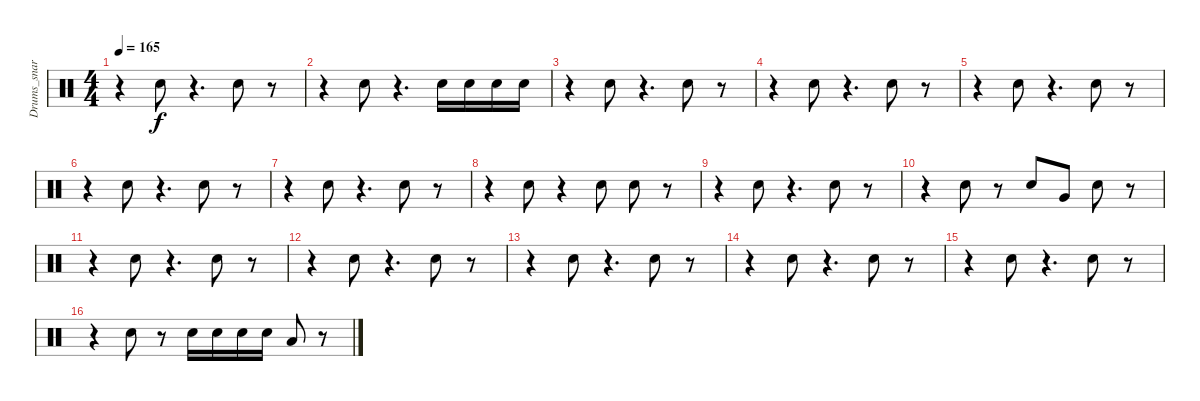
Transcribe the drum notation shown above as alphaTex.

\track ("Drums_snare&tom" "Drums_snar") {instrument percussion}
\staff {score}
\articulation defaults
\ts (4 4)
\tempo 165
\clef neutral
\ks c
r.4{dy f} "Snare (hit) 2".8 r.4{d} "Snare (hit) 2".8 r.8 |
r.4 "Snare (hit) 2".8 r.4{d} "Snare (hit) 2".16 "Snare (hit) 2".16 "Snare (hit) 2".16 "Snare (hit) 2".16 |
r.4 "Snare (hit) 2".8 r.4{d} "Snare (hit) 2".8 r.8 |
r.4 "Snare (hit) 2".8 r.4{d} "Snare (hit) 2".8 r.8 |
r.4 "Snare (hit) 2".8 r.4{d} "Snare (hit) 2".8 r.8 |
r.4 "Snare (hit) 2".8 r.4{d} "Snare (hit) 2".8 r.8 |
r.4 "Snare (hit) 2".8 r.4{d} "Snare (hit) 2".8 r.8 |
r.4 "Snare (hit) 2".8 r.4 "Snare (hit) 2".8 "Snare (hit) 2".8 r.8 |
r.4 "Snare (hit) 2".8 r.4{d} "Snare (hit) 2".8 r.8 |
r.4 "Snare (hit) 2".8 r.8 "Snare (hit) 2".8 "Very Low Tom (hit)".8 "Snare (hit) 2".8 r.8 |
r.4 "Snare (hit) 2".8 r.4{d} "Snare (hit) 2".8 r.8 |
r.4 "Snare (hit) 2".8 r.4{d} "Snare (hit) 2".8 r.8 |
r.4 "Snare (hit) 2".8 r.4{d} "Snare (hit) 2".8 r.8 |
r.4 "Snare (hit) 2".8 r.4{d} "Snare (hit) 2".8 r.8 |
r.4 "Snare (hit) 2".8 r.4{d} "Snare (hit) 2".8 r.8 |
r.4 "Snare (hit) 2".8 r.8 "Snare (hit) 2".16 "Snare (hit) 2".16 "Snare (hit) 2".16 "Snare (hit) 2".16 "Low Floor Tom (hit)".8 r.8
